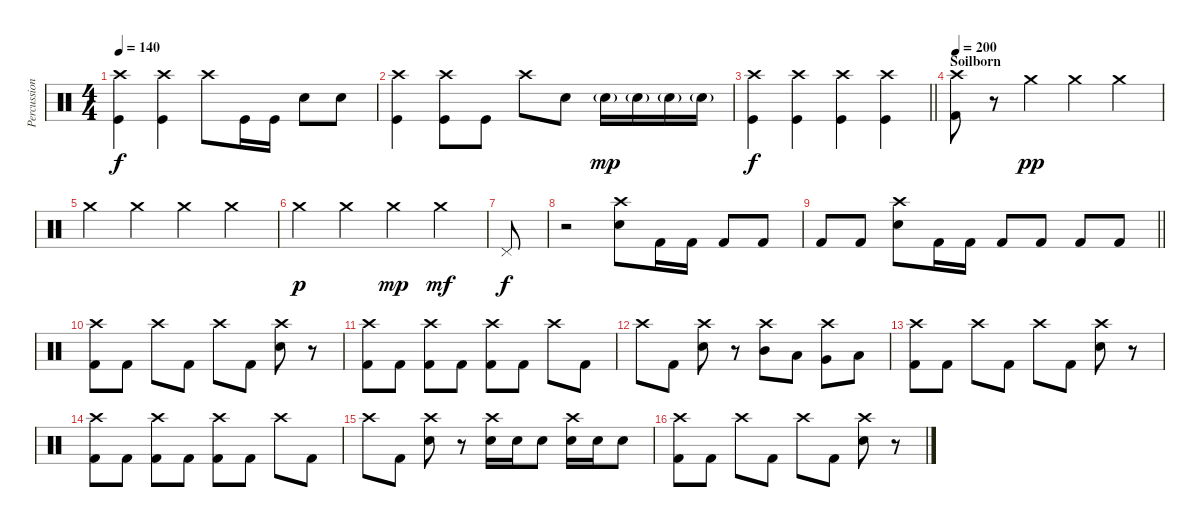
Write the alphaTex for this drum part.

\track ("Percussion" "Percussion") {instrument percussion}
\staff {score}
\articulation defaults
\ts (4 4)
\tempo 140
\clef neutral
\ks c
("Crash high (hit)" "Kick (hit)").4{dy f} ("Crash high (hit)" "Kick (hit)").4 "Crash high (hit)".8 "Kick (hit)".16 "Kick (hit)".16 "Electric Snare (hit)".8 "Electric Snare (hit)".8 |
("Crash high (hit)" "Kick (hit)").4 ("Crash high (hit)" "Kick (hit)").8 "Kick (hit)".8 "Crash high (hit)".8 "Snare (hit) 2".8 "Snare (hit) 2"{g}.16{dy mp} "Snare (hit) 2"{g}.16 "Snare (hit) 2"{g}.16 "Snare (hit) 2"{g}.16 |
\barLineRight lightlight
("Crash high (hit)" "Kick (hit)").4{dy f} ("Crash high (hit)" "Kick (hit)").4 ("Crash high (hit)" "Kick (hit)").4 ("Crash high (hit)" "Kick (hit)").4 |
\section ("" "Soilborn")
\tempo 200
("Crash high (hit)" "Kick (hit) 2").8 r.8 "Crash medium (hit)".4{dy pp} "Crash medium (hit)".4 "Crash medium (hit)".4 |
"Crash medium (hit)".4 "Crash medium (hit)".4 "Crash medium (hit)".4 "Crash medium (hit)".4 |
"Crash medium (hit)".4{dy p} "Crash medium (hit)".4 "Crash medium (hit)".4{dy mp} "Crash medium (hit)".4{dy mf} |
"Pedal Hi-Hat (hit)"{pm}.8{dy f} |
r.2 ("Crash high (hit)" "Electric Snare (hit)").8 "Kick (hit) 2".16 "Kick (hit) 2".16 "Kick (hit) 2".8 "Kick (hit) 2".8 |
\barLineRight lightlight "Kick (hit) 2".8 "Kick (hit) 2".8
("Crash high (hit)" "Electric Snare (hit)").8 "Kick (hit) 2".16 "Kick (hit) 2".16 "Kick (hit) 2".8 "Kick (hit) 2".8 "Kick (hit) 2".8 "Kick (hit) 2".8 |
("Crash high (hit)" "Kick (hit) 2").8 "Kick (hit) 2".8 "Crash high (hit)".8 "Kick (hit) 2".8 "Crash high (hit)".8 "Kick (hit) 2".8 ("Crash high (hit)" "Electric Snare (hit)").8 r.8 |
("Crash high (hit)" "Kick (hit) 2").8 "Kick (hit) 2".8 ("Crash high (hit)" "Kick (hit) 2").8 "Kick (hit) 2".8 ("Crash high (hit)" "Kick (hit) 2").8 "Kick (hit) 2".8 "Crash high (hit)".8 "Kick (hit) 2".8 |
"Crash high (hit)".8 "Kick (hit) 2".8 ("Crash high (hit)" "Electric Snare (hit)").8 r.8 ("Crash high (hit)" "Mid Tom (hit)").8 "Low Tom (hit)".8 ("Crash high (hit)" "Very Low Tom (hit)").8 "Low Floor Tom (hit)".8 |
("Crash high (hit)" "Kick (hit) 2").8 "Kick (hit) 2".8 "Crash high (hit)".8 "Kick (hit) 2".8 "Crash high (hit)".8 "Kick (hit) 2".8 ("Crash high (hit)" "Electric Snare (hit)").8 r.8 |
("Crash high (hit)" "Kick (hit) 2").8 "Kick (hit) 2".8 ("Crash high (hit)" "Kick (hit) 2").8 "Kick (hit) 2".8 ("Crash high (hit)" "Kick (hit) 2").8 "Kick (hit) 2".8 "Crash high (hit)".8 "Kick (hit) 2".8 |
"Crash high (hit)".8 "Kick (hit) 2".8 ("Crash high (hit)" "Electric Snare (hit)").8 r.8 ("Crash high (hit)" "Electric Snare (hit)").16 "Electric Snare (hit)".16 "Electric Snare (hit)".8 ("Crash high (hit)" "Electric Snare (hit)").16 "Electric Snare (hit)".16 "Electric Snare (hit)".8 |
("Crash high (hit)" "Kick (hit) 2").8 "Kick (hit) 2".8 "Crash high (hit)".8 "Kick (hit) 2".8 "Crash high (hit)".8 "Kick (hit) 2".8 ("Crash high (hit)" "Electric Snare (hit)").8 r.8
